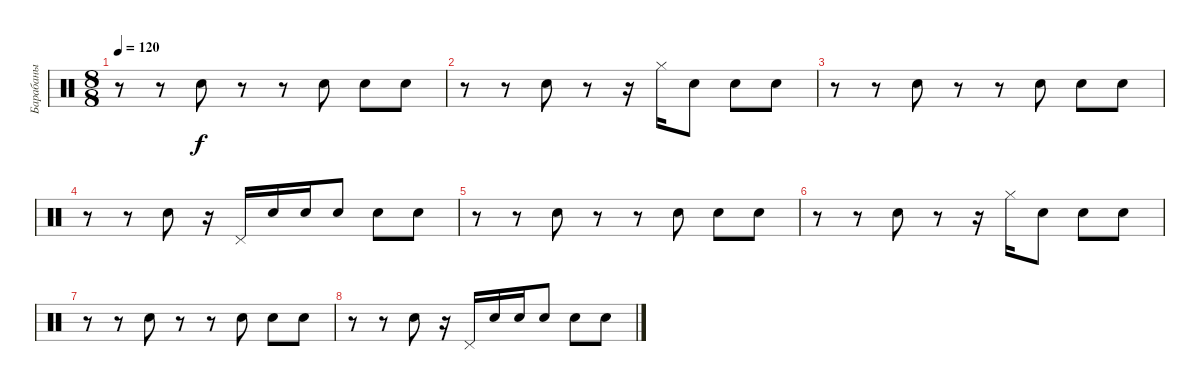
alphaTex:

\track ("Барабаны" "Барабаны") {instrument percussion}
\staff {score}
\articulation defaults
\ts (8 8)
\tempo 120
\clef neutral
\ks c
r.8{dy f} r.8 "Electric Snare (hit)".8 r.8 r.8 "Electric Snare (hit)".8 "Hand Clap (hit)".8 "Electric Snare (hit)".8 |
r.8 r.8 "Electric Snare (hit)".8 r.8 r.16 "Hi-Hat (closed)".16 "Electric Snare (hit)".8 "Hand Clap (hit)".8 "Electric Snare (hit)".8 |
r.8 r.8 "Electric Snare (hit)".8 r.8 r.8 "Electric Snare (hit)".8 "Hand Clap (hit)".8 "Electric Snare (hit)".8 |
r.8 r.8 "Electric Snare (hit)".8 r.16 "Pedal Hi-Hat (hit)".16 "Electric Snare (hit)".16 "Electric Snare (hit)".16 "Electric Snare (hit)".8 "Hand Clap (hit)".8 "Electric Snare (hit)".8 |
r.8 r.8 "Electric Snare (hit)".8 r.8 r.8 "Electric Snare (hit)".8 "Hand Clap (hit)".8 "Electric Snare (hit)".8 |
r.8 r.8 "Electric Snare (hit)".8 r.8 r.16 "Hi-Hat (closed)".16 "Electric Snare (hit)".8 "Hand Clap (hit)".8 "Electric Snare (hit)".8 |
r.8 r.8 "Electric Snare (hit)".8 r.8 r.8 "Electric Snare (hit)".8 "Hand Clap (hit)".8 "Electric Snare (hit)".8 |
r.8 r.8 "Electric Snare (hit)".8 r.16 "Pedal Hi-Hat (hit)".16 "Electric Snare (hit)".16 "Electric Snare (hit)".16 "Electric Snare (hit)".8 "Hand Clap (hit)".8 "Electric Snare (hit)".8
